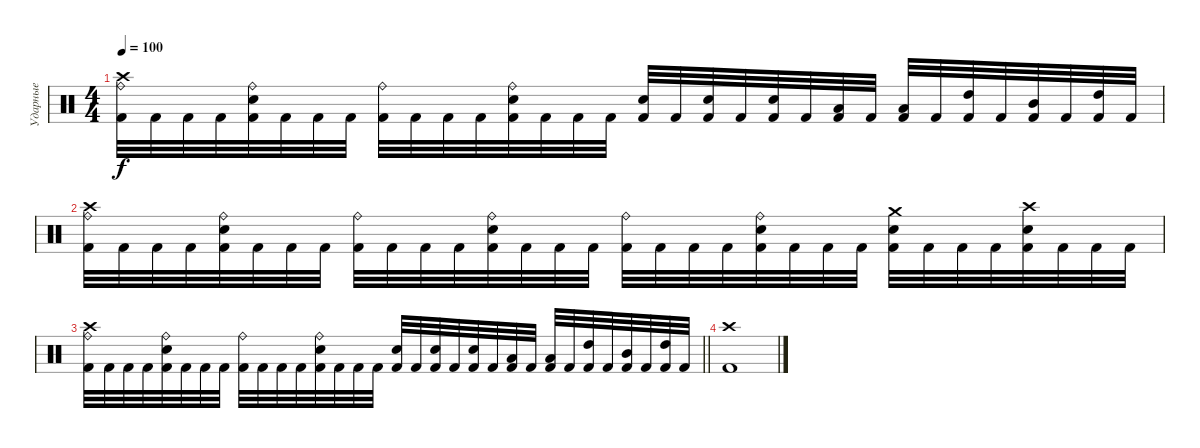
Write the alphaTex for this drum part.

\track ("Ударные" "Ударные") {instrument percussion}
\staff {score}
\articulation defaults
\ts (4 4)
\tempo 100
\clef neutral
\ks c
("Ride (bell)" "Crash high (hit)" "Kick (hit) 2").32{dy f} "Kick (hit) 2".32 "Kick (hit) 2".32 "Kick (hit) 2".32 ("Ride (bell)" "Snare (hit) 2" "Kick (hit) 2").32 "Kick (hit) 2".32 "Kick (hit) 2".32 "Kick (hit) 2".32 ("Ride (bell)" "Kick (hit) 2").32 "Kick (hit) 2".32 "Kick (hit) 2".32 "Kick (hit) 2".32 ("Ride (bell)" "Snare (hit) 2" "Kick (hit) 2").32 "Kick (hit) 2".32 "Kick (hit) 2".32 "Kick (hit) 2".32 ("Snare (hit) 2" "Kick (hit) 2").32 "Kick (hit) 2".32 ("Snare (hit) 2" "Kick (hit) 2").32 "Kick (hit) 2".32 ("Snare (hit) 2" "Kick (hit) 2").32 "Kick (hit) 2".32 ("Low Tom (hit)" "Kick (hit) 2").32 "Kick (hit) 2".32 ("Low Tom (hit)" "Kick (hit) 2").32 "Kick (hit) 2".32 ("High Tom (hit)" "Kick (hit) 2").32 "Kick (hit) 2".32 ("Mid Tom (hit)" "Kick (hit) 2").32 "Kick (hit) 2".32 ("High Tom (hit)" "Kick (hit) 2").32 "Kick (hit) 2".32 |
("Ride (bell)" "Crash high (hit)" "Kick (hit) 2").32 "Kick (hit) 2".32 "Kick (hit) 2".32 "Kick (hit) 2".32 ("Ride (bell)" "Snare (hit) 2" "Kick (hit) 2").32 "Kick (hit) 2".32 "Kick (hit) 2".32 "Kick (hit) 2".32 ("Ride (bell)" "Kick (hit) 2").32 "Kick (hit) 2".32 "Kick (hit) 2".32 "Kick (hit) 2".32 ("Ride (bell)" "Snare (hit) 2" "Kick (hit) 2").32 "Kick (hit) 2".32 "Kick (hit) 2".32 "Kick (hit) 2".32 ("Ride (bell)" "Kick (hit) 2").32 "Kick (hit) 2".32 "Kick (hit) 2".32 "Kick (hit) 2".32 ("Ride (bell)" "Snare (hit) 2" "Kick (hit) 2").32 "Kick (hit) 2".32 "Kick (hit) 2".32 "Kick (hit) 2".32 ("Crash medium (hit)" "Snare (hit) 2" "Kick (hit) 2").32 "Kick (hit) 2".32 "Kick (hit) 2".32 "Kick (hit) 2".32 ("Crash high (hit)" "Snare (hit) 2" "Kick (hit) 2").32 "Kick (hit) 2".32 "Kick (hit) 2".32 "Kick (hit) 2".32 |
\barLineRight lightlight
("Ride (bell)" "Crash high (hit)" "Kick (hit) 2").32 "Kick (hit) 2".32 "Kick (hit) 2".32 "Kick (hit) 2".32 ("Ride (bell)" "Snare (hit) 2" "Kick (hit) 2").32 "Kick (hit) 2".32 "Kick (hit) 2".32 "Kick (hit) 2".32 ("Ride (bell)" "Kick (hit) 2").32 "Kick (hit) 2".32 "Kick (hit) 2".32 "Kick (hit) 2".32 ("Ride (bell)" "Snare (hit) 2" "Kick (hit) 2").32 "Kick (hit) 2".32 "Kick (hit) 2".32 "Kick (hit) 2".32 ("Snare (hit) 2" "Kick (hit) 2").32 "Kick (hit) 2".32 ("Snare (hit) 2" "Kick (hit) 2").32 "Kick (hit) 2".32 ("Snare (hit) 2" "Kick (hit) 2").32 "Kick (hit) 2".32 ("Low Tom (hit)" "Kick (hit) 2").32 "Kick (hit) 2".32 ("Low Tom (hit)" "Kick (hit) 2").32 "Kick (hit) 2".32 ("High Tom (hit)" "Kick (hit) 2").32 "Kick (hit) 2".32 ("Mid Tom (hit)" "Kick (hit) 2").32 "Kick (hit) 2".32 ("High Tom (hit)" "Kick (hit) 2").32 "Kick (hit) 2".32 |
("Crash high (hit)" "Kick (hit) 2").1
